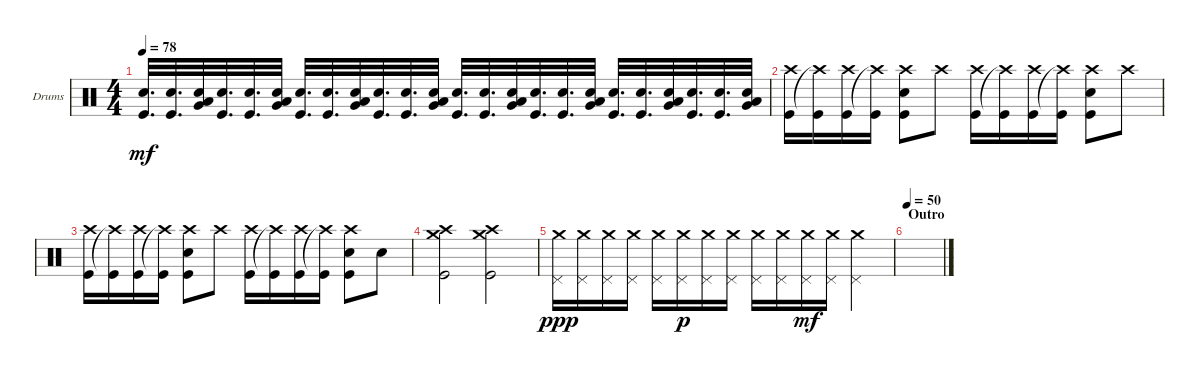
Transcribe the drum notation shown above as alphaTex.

\defaultSystemsLayout 4
\bracketExtendMode groupsimilarinstruments
\firstSystemTrackNameOrientation horizontal
\otherSystemsTrackNameOrientation horizontal
\track ("Drumkit" "Drums") {instrument percussion}
\staff {score}
\articulation defaults
\ts (4 4)
\tempo 78
\clef neutral
\ks c
("Kick (hit)" "Snare (hit) 2").32{d dy mf} ("Kick (hit)" "Snare (hit) 2").32{d} ("Very Low Tom (hit)" "Low Tom (hit)" "Snare (hit) 2").32 ("Kick (hit)" "Snare (hit) 2").32{d} ("Kick (hit)" "Snare (hit) 2").32{d} ("Low Tom (hit)" "Very Low Tom (hit)" "Snare (hit) 2").32 ("Kick (hit)" "Snare (hit) 2").32{d} ("Kick (hit)" "Snare (hit) 2").32{d} ("Very Low Tom (hit)" "Low Tom (hit)" "Snare (hit) 2").32 ("Kick (hit)" "Snare (hit) 2").32{d} ("Kick (hit)" "Snare (hit) 2").32{d} ("Low Tom (hit)" "Very Low Tom (hit)" "Snare (hit) 2").32 ("Kick (hit)" "Snare (hit) 2").32{d} ("Kick (hit)" "Snare (hit) 2").32{d} ("Very Low Tom (hit)" "Low Tom (hit)" "Snare (hit) 2").32 ("Kick (hit)" "Snare (hit) 2").32{d} ("Kick (hit)" "Snare (hit) 2").32{d} ("Low Tom (hit)" "Very Low Tom (hit)" "Snare (hit) 2").32 ("Kick (hit)" "Snare (hit) 2").32{d} ("Kick (hit)" "Snare (hit) 2").32{d} ("Very Low Tom (hit)" "Low Tom (hit)" "Snare (hit) 2").32 ("Kick (hit)" "Snare (hit) 2").32{d} ("Kick (hit)" "Snare (hit) 2").32{d} ("Low Tom (hit)" "Very Low Tom (hit)" "Snare (hit) 2").32 |
("Kick (hit)" "Crash high (hit)").16 ("Crash high (hit)"{t} "Kick (hit)").16 ("Kick (hit)" "Crash high (hit)").16 ("Crash high (hit)"{t} "Kick (hit)").16 ("Kick (hit)" "Snare (hit) 2" "Crash high (hit)").8 "Crash high (hit)".8 ("Kick (hit)" "Crash high (hit)").16 ("Crash high (hit)"{t} "Kick (hit)").16 ("Kick (hit)" "Crash high (hit)").16 ("Crash high (hit)"{t} "Kick (hit)").16 ("Kick (hit)" "Snare (hit) 2" "Crash high (hit)").8 "Crash high (hit)".8 |
("Kick (hit)" "Crash high (hit)").16 ("Crash high (hit)"{t} "Kick (hit)").16 ("Kick (hit)" "Crash high (hit)").16 ("Crash high (hit)"{t} "Kick (hit)").16 ("Kick (hit)" "Snare (hit) 2" "Crash high (hit)").8 "Crash high (hit)".8 ("Kick (hit)" "Crash high (hit)").16 ("Crash high (hit)"{t} "Kick (hit)").16 ("Kick (hit)" "Crash high (hit)").16 ("Crash high (hit)"{t} "Kick (hit)").16 ("Kick (hit)" "Snare (hit) 2" "Crash high (hit)").8 "Snare (hit) 2".8 |
("Kick (hit)" "Crash medium (hit)" "Crash high (hit)").2 ("Kick (hit)" "Crash medium (hit)" "Crash high (hit)").2 |
("Crash medium (hit)" "Pedal Hi-Hat (hit)").16{dy ppp} ("Pedal Hi-Hat (hit)" "Crash medium (hit)").16 ("Crash medium (hit)" "Pedal Hi-Hat (hit)").16 ("Pedal Hi-Hat (hit)" "Crash medium (hit)").16 ("Crash medium (hit)" "Pedal Hi-Hat (hit)").16 ("Pedal Hi-Hat (hit)" "Crash medium (hit)").16{dy p} ("Crash medium (hit)" "Pedal Hi-Hat (hit)").16 ("Pedal Hi-Hat (hit)" "Crash medium (hit)").16 ("Crash medium (hit)" "Pedal Hi-Hat (hit)").16 ("Pedal Hi-Hat (hit)" "Crash medium (hit)").16 ("Crash medium (hit)" "Pedal Hi-Hat (hit)").16{dy mf} ("Pedal Hi-Hat (hit)" "Crash medium (hit)").16 ("Crash medium (hit)" "Pedal Hi-Hat (hit)").4 |
\section ("" "Outro")
\tempo 50
